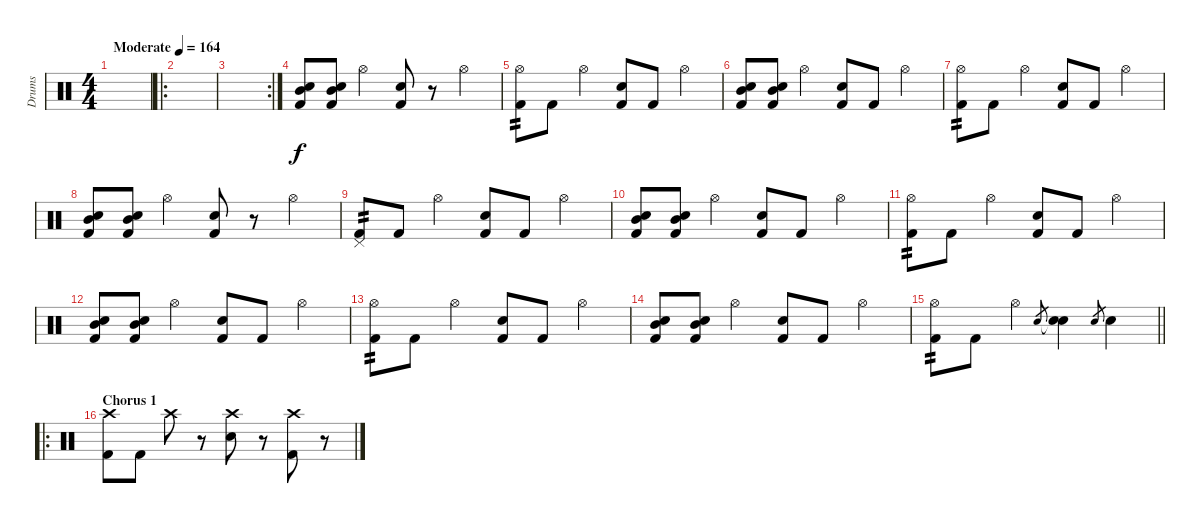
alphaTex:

\track ("Drums" "Drums") {instrument percussion}
\staff {score}
\articulation defaults
\ts (4 4)
\tempo (164 "Moderate")
\clef neutral
\ks c
|
\ro
|
\rc 2
|
("Mid Tom (hit)" "Snare (hit) 2" "Kick (hit) 2").8 ("Mid Tom (hit)" "Snare (hit) 2" "Kick (hit) 2").8 "Hi-Hat (open)".4 ("Snare (hit) 2" "Kick (hit) 2").8 r.8 "Hi-Hat (open)".4 |
("Hi-Hat (open)" "Kick (hit) 2").8{tp 2} "Kick (hit) 2".8 "Hi-Hat (open)".4 ("Snare (hit) 2" "Kick (hit) 2").8 "Kick (hit) 2".8 "Hi-Hat (open)".4 |
("Mid Tom (hit)" "Snare (hit) 2" "Kick (hit) 2").8 ("Mid Tom (hit)" "Snare (hit) 2" "Kick (hit) 2").8 "Hi-Hat (open)".4 ("Snare (hit) 2" "Kick (hit) 2").8 "Kick (hit) 2".8 "Hi-Hat (open)".4 |
("Hi-Hat (open)" "Kick (hit) 2").8{tp 2} "Kick (hit) 2".8 "Hi-Hat (open)".4 ("Snare (hit) 2" "Kick (hit) 2").8 "Kick (hit) 2".8 "Hi-Hat (open)".4 |
("Mid Tom (hit)" "Snare (hit) 2" "Kick (hit) 2").8 ("Mid Tom (hit)" "Snare (hit) 2" "Kick (hit) 2").8 "Hi-Hat (open)".4 ("Snare (hit) 2" "Kick (hit) 2").8 r.8 "Hi-Hat (open)".4 |
("Pedal Hi-Hat (hit)" "Kick (hit) 2").8{tp 2} "Kick (hit) 2".8 "Hi-Hat (open)".4 ("Snare (hit) 2" "Kick (hit) 2").8 "Kick (hit) 2".8 "Hi-Hat (open)".4 |
("Mid Tom (hit)" "Snare (hit) 2" "Kick (hit) 2").8 ("Mid Tom (hit)" "Snare (hit) 2" "Kick (hit) 2").8 "Hi-Hat (open)".4 ("Snare (hit) 2" "Kick (hit) 2").8 "Kick (hit) 2".8 "Hi-Hat (open)".4 |
("Hi-Hat (open)" "Kick (hit) 2").8{tp 2} "Kick (hit) 2".8 "Hi-Hat (open)".4 ("Snare (hit) 2" "Kick (hit) 2").8 "Kick (hit) 2".8 "Hi-Hat (open)".4 |
("Mid Tom (hit)" "Snare (hit) 2" "Kick (hit) 2").8 ("Mid Tom (hit)" "Snare (hit) 2" "Kick (hit) 2").8 "Hi-Hat (open)".4 ("Snare (hit) 2" "Kick (hit) 2").8 "Kick (hit) 2".8 "Hi-Hat (open)".4 |
("Hi-Hat (open)" "Kick (hit) 2").8{tp 2} "Kick (hit) 2".8 "Hi-Hat (open)".4 ("Snare (hit) 2" "Kick (hit) 2").8 "Kick (hit) 2".8 "Hi-Hat (open)".4 |
("Mid Tom (hit)" "Snare (hit) 2" "Kick (hit) 2").8 ("Mid Tom (hit)" "Snare (hit) 2" "Kick (hit) 2").8 "Hi-Hat (open)".4 ("Snare (hit) 2" "Kick (hit) 2").8 "Kick (hit) 2".8 "Hi-Hat (open)".4 |
\barLineRight lightlight
("Hi-Hat (open)" "Kick (hit) 2").8{tp 2} "Kick (hit) 2".8 "Hi-Hat (open)".4 "Snare (hit) 2".8{gr} ("Snare (hit)"{t} "Snare (hit) 2").4 "Snare (hit) 2".8{gr} "Snare (hit) 2".4 |
\ro
\section ("" "Chorus 1")
("Crash high (hit)" "Kick (hit) 2").8 "Kick (hit) 2".8 "Crash high (hit)".8 r.8 ("Crash high (hit)" "Electric Snare (hit)").8 r.8 ("Crash high (hit)" "Kick (hit) 2").8 r.8
